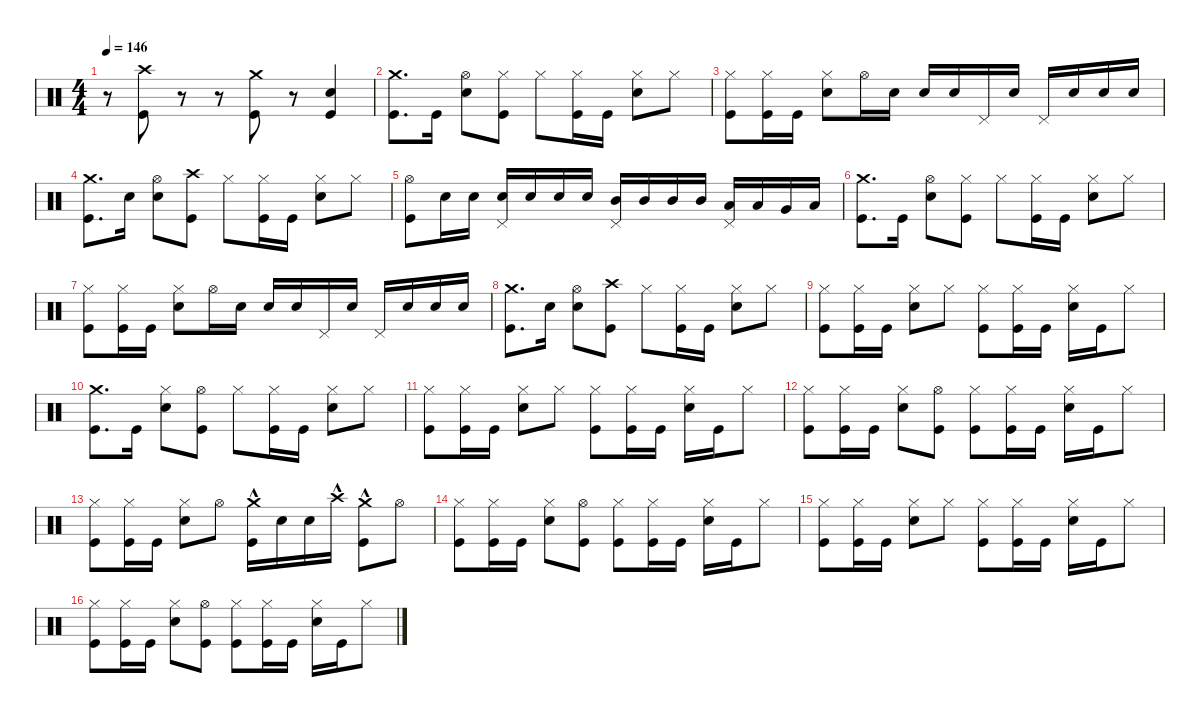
\defaultSystemsLayout 4
\hideDynamics
\bracketExtendMode nobrackets
\singleTrackTrackNamePolicy hidden
\multiTrackTrackNamePolicy hidden
\firstSystemTrackNameMode fullname
\firstSystemTrackNameOrientation horizontal
\otherSystemsTrackNameOrientation horizontal
\track ("Drums" "drm.") {instrument percussion}
\staff {score}
\articulation defaults
\ts (4 4)
\tempo 146
\clef neutral
\ks c
r.8{dy f beam Down} ("Crash high (hit)" "Kick (hit)").8{beam Down} r.8{beam Down} r.8{beam Down} ("Crash medium (hit)" "Kick (hit)").8{beam Down} r.8{beam Down} ("Snare (hit) 2" "Kick (hit)").4{beam Up} |
("Crash medium (hit)" "Kick (hit)").8{d beam Down} "Kick (hit)".16{beam Down} ("Hi-Hat (open)" "Snare (hit) 2").8{beam Down} ("Hi-Hat (closed)" "Kick (hit)").8{beam Down} "Hi-Hat (closed)".8{beam Down} ("Hi-Hat (closed)" "Kick (hit)").16{beam Down} "Kick (hit)".16{beam Down} ("Hi-Hat (closed)" "Snare (hit) 2").8{beam Down} "Hi-Hat (closed)".8{beam Down} |
("Hi-Hat (closed)" "Kick (hit)").8{beam Down} ("Hi-Hat (closed)" "Kick (hit)").16{beam Down} "Kick (hit)".16{beam Down} ("Hi-Hat (closed)" "Snare (hit) 2").8{beam Down} "Hi-Hat (open)".16{beam Down} "Snare (hit) 2".16{beam Down} "Snare (hit) 2".16{beam Up} "Snare (hit) 2".16{beam Up} "Pedal Hi-Hat (hit)".16{beam Up} "Snare (hit) 2".16{beam Up} "Pedal Hi-Hat (hit)".16{beam Up} "Snare (hit) 2".16{beam Up} "Snare (hit) 2".16{beam Up} "Snare (hit) 2".16{beam Up} |
("Crash medium (hit)" "Kick (hit)").8{d beam Down} "Snare (hit) 2".16{beam Down} ("Hi-Hat (open)" "Snare (hit) 2").8{beam Down} ("Crash high (hit)" "Kick (hit)").8{beam Down} "Hi-Hat (closed)".8{beam Down} ("Hi-Hat (closed)" "Kick (hit)").16{beam Down} "Kick (hit)".16{beam Down} ("Hi-Hat (closed)" "Snare (hit) 2").8{beam Down} "Hi-Hat (closed)".8{beam Down} |
("Hi-Hat (open)" "Kick (hit)").8{beam Down} "Snare (hit) 2".16{beam Down} "Snare (hit) 2".16{beam Down} ("Pedal Hi-Hat (hit)" "Snare (hit) 2").16{beam Up} "Snare (hit) 2".16{beam Up} "Snare (hit) 2".16{beam Up} "Snare (hit) 2".16{beam Up} ("Pedal Hi-Hat (hit)" "Mid Tom (hit)").16{beam Up} "Mid Tom (hit)".16{beam Up} "Mid Tom (hit)".16{beam Up} "Mid Tom (hit)".16{beam Up} ("Pedal Hi-Hat (hit)" "Low Tom (hit)").16{beam Up} "Low Tom (hit)".16{beam Up} "Very Low Tom (hit)".16{beam Up} "Low Floor Tom (hit)".16{beam Up} |
("Crash medium (hit)" "Kick (hit)").8{d beam Down} "Kick (hit)".16{beam Down} ("Hi-Hat (open)" "Snare (hit) 2").8{beam Down} ("Hi-Hat (closed)" "Kick (hit)").8{beam Down} "Hi-Hat (closed)".8{beam Down} ("Hi-Hat (closed)" "Kick (hit)").16{beam Down} "Kick (hit)".16{beam Down} ("Hi-Hat (closed)" "Snare (hit) 2").8{beam Down} "Hi-Hat (closed)".8{beam Down} |
("Hi-Hat (closed)" "Kick (hit)").8{beam Down} ("Hi-Hat (closed)" "Kick (hit)").16{beam Down} "Kick (hit)".16{beam Down} ("Hi-Hat (closed)" "Snare (hit) 2").8{beam Down} "Hi-Hat (open)".16{beam Down} "Snare (hit) 2".16{beam Down} "Snare (hit) 2".16{beam Up} "Snare (hit) 2".16{beam Up} "Pedal Hi-Hat (hit)".16{beam Up} "Snare (hit) 2".16{beam Up} "Pedal Hi-Hat (hit)".16{beam Up} "Snare (hit) 2".16{beam Up} "Snare (hit) 2".16{beam Up} "Snare (hit) 2".16{beam Up} |
("Crash medium (hit)" "Kick (hit)").8{d beam Down} "Snare (hit) 2".16{beam Down} ("Hi-Hat (open)" "Snare (hit) 2").8{beam Down} ("Crash high (hit)" "Kick (hit)").8{beam Down} "Hi-Hat (closed)".8{beam Down} ("Hi-Hat (closed)" "Kick (hit)").16{beam Down} "Kick (hit)".16{beam Down} ("Hi-Hat (closed)" "Snare (hit) 2").8{beam Down} "Hi-Hat (closed)".8{beam Down} |
("Hi-Hat (closed)" "Kick (hit)").8{beam Down} ("Hi-Hat (closed)" "Kick (hit)").16{beam Down} "Kick (hit)".16{beam Down} ("Hi-Hat (closed)" "Snare (hit) 2").8{beam Down} "Hi-Hat (closed)".8{beam Down} ("Hi-Hat (closed)" "Kick (hit)").8{beam Down} ("Hi-Hat (closed)" "Kick (hit)").16{beam Down} "Kick (hit)".16{beam Down} ("Hi-Hat (closed)" "Snare (hit) 2").16{beam Down} "Kick (hit)".16{beam Down} "Hi-Hat (closed)".8{beam Down} |
("Crash medium (hit)" "Kick (hit)").8{d beam Down} "Kick (hit)".16{beam Down} ("Hi-Hat (closed)" "Snare (hit) 2").8{beam Down} ("Hi-Hat (open)" "Kick (hit)").8{beam Down} "Hi-Hat (closed)".8{beam Down} ("Hi-Hat (closed)" "Kick (hit)").16{beam Down} "Kick (hit)".16{beam Down} ("Hi-Hat (closed)" "Snare (hit) 2").8{beam Down} "Hi-Hat (closed)".8{beam Down} |
("Hi-Hat (closed)" "Kick (hit)").8{beam Down} ("Hi-Hat (closed)" "Kick (hit)").16{beam Down} "Kick (hit)".16{beam Down} ("Hi-Hat (closed)" "Snare (hit) 2").8{beam Down} "Hi-Hat (closed)".8{beam Down} ("Hi-Hat (closed)" "Kick (hit)").8{beam Down} ("Hi-Hat (closed)" "Kick (hit)").16{beam Down} "Kick (hit)".16{beam Down} ("Hi-Hat (closed)" "Snare (hit) 2").16{beam Down} "Kick (hit)".16{beam Down} "Hi-Hat (closed)".8{beam Down} |
("Hi-Hat (closed)" "Kick (hit)").8{beam Down} ("Hi-Hat (closed)" "Kick (hit)").16{beam Down} "Kick (hit)".16{beam Down} ("Hi-Hat (closed)" "Snare (hit) 2").8{beam Down} ("Hi-Hat (open)" "Kick (hit)").8{beam Down} ("Hi-Hat (closed)" "Kick (hit)").8{beam Down} ("Hi-Hat (closed)" "Kick (hit)").16{beam Down} "Kick (hit)".16{beam Down} ("Hi-Hat (closed)" "Snare (hit) 2").16{beam Down} "Kick (hit)".16{beam Down} "Hi-Hat (closed)".8{beam Down} |
("Hi-Hat (closed)" "Kick (hit)").8{beam Down} ("Hi-Hat (closed)" "Kick (hit)").16{beam Down} "Kick (hit)".16{beam Down} ("Hi-Hat (closed)" "Snare (hit) 2").8{beam Down} "Hi-Hat (open)".8{beam Down} ("Crash medium (hit)"{hac} "Kick (hit)").16{beam Down} "Snare (hit) 2".16{beam Down} "Snare (hit) 2".16{beam Down} "Crash high (hit)"{hac}.16{beam Down} ("Crash medium (hit)"{hac} "Kick (hit)").8{beam Down} "Hi-Hat (open)".8{beam Down} |
("Hi-Hat (closed)" "Kick (hit)").8{beam Down} ("Hi-Hat (closed)" "Kick (hit)").16{beam Down} "Kick (hit)".16{beam Down} ("Hi-Hat (closed)" "Snare (hit) 2").8{beam Down} ("Hi-Hat (open)" "Kick (hit)").8{beam Down} ("Hi-Hat (closed)" "Kick (hit)").8{beam Down} ("Hi-Hat (closed)" "Kick (hit)").16{beam Down} "Kick (hit)".16{beam Down} ("Hi-Hat (closed)" "Snare (hit) 2").16{beam Down} "Kick (hit)".16{beam Down} "Hi-Hat (closed)".8{beam Down} |
("Hi-Hat (closed)" "Kick (hit)").8{beam Down} ("Hi-Hat (closed)" "Kick (hit)").16{beam Down} "Kick (hit)".16{beam Down} ("Hi-Hat (closed)" "Snare (hit) 2").8{beam Down} "Hi-Hat (closed)".8{beam Down} ("Hi-Hat (closed)" "Kick (hit)").8{beam Down} ("Hi-Hat (closed)" "Kick (hit)").16{beam Down} "Kick (hit)".16{beam Down} ("Hi-Hat (closed)" "Snare (hit) 2").16{beam Down} "Kick (hit)".16{beam Down} "Hi-Hat (closed)".8{beam Down} |
("Hi-Hat (closed)" "Kick (hit)").8{beam Down} ("Hi-Hat (closed)" "Kick (hit)").16{beam Down} "Kick (hit)".16{beam Down} ("Hi-Hat (closed)" "Snare (hit) 2").8{beam Down} ("Hi-Hat (open)" "Kick (hit)").8{beam Down} ("Hi-Hat (closed)" "Kick (hit)").8{beam Down} ("Hi-Hat (closed)" "Kick (hit)").16{beam Down} "Kick (hit)".16{beam Down} ("Hi-Hat (closed)" "Snare (hit) 2").16{beam Down} "Kick (hit)".16{beam Down} "Hi-Hat (closed)".8{beam Down}
